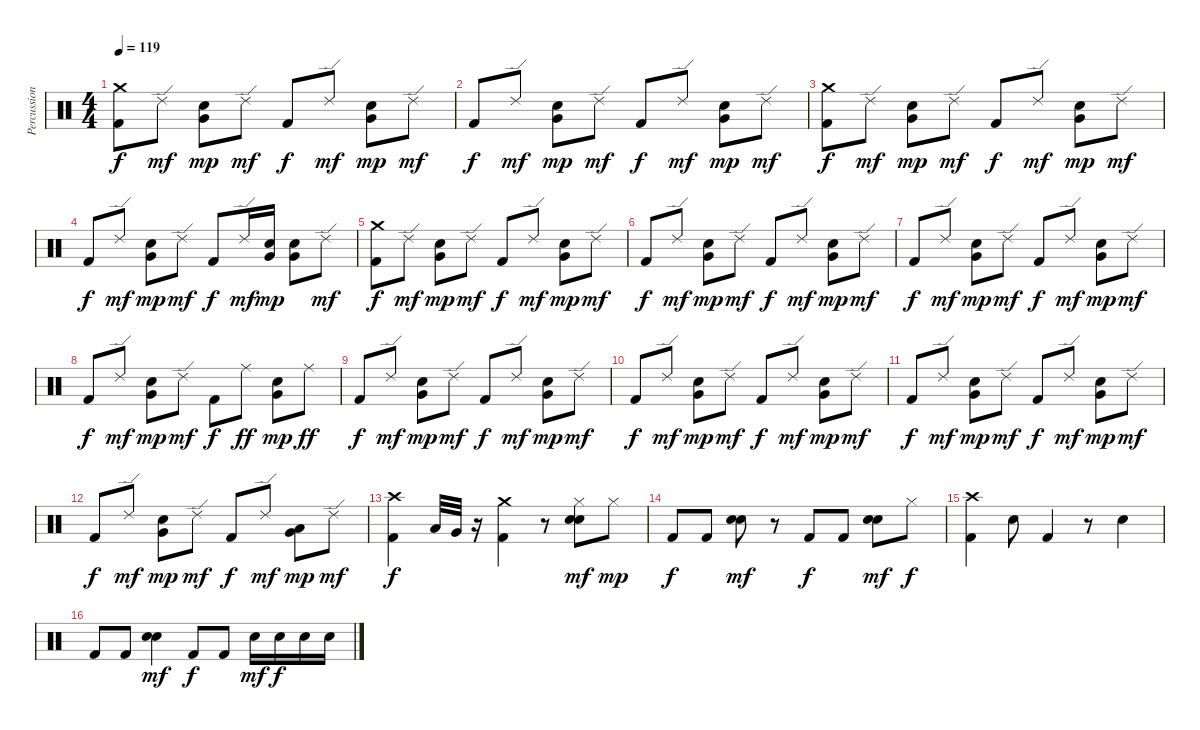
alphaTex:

\track ("Percussion" "Percussion") {instrument percussion}
\staff {score}
\articulation defaults
\ts (4 4)
\tempo 119
\clef neutral
\ks c
("Crash medium (hit)" "Kick (hit) 2").8{dy f} "Ride (edge) 2".8{dy mf} ("Very Low Tom (hit)" "Snare (hit) 2").8{dy mp} "Ride (edge) 2".8{dy mf} "Kick (hit) 2".8{dy f} "Ride (edge) 2".8{dy mf} ("Very Low Tom (hit)" "Snare (hit) 2").8{dy mp} "Ride (edge) 2".8{dy mf} |
"Kick (hit) 2".8{dy f} "Ride (edge) 2".8{dy mf} ("Very Low Tom (hit)" "Snare (hit) 2").8{dy mp} "Ride (edge) 2".8{dy mf} "Kick (hit) 2".8{dy f} "Ride (edge) 2".8{dy mf} ("Very Low Tom (hit)" "Snare (hit) 2").8{dy mp} "Ride (edge) 2".8{dy mf} |
("Crash medium (hit)" "Kick (hit) 2").8{dy f} "Ride (edge) 2".8{dy mf} ("Very Low Tom (hit)" "Snare (hit) 2").8{dy mp} "Ride (edge) 2".8{dy mf} "Kick (hit) 2".8{dy f} "Ride (edge) 2".8{dy mf} ("Very Low Tom (hit)" "Snare (hit) 2").8{dy mp} "Ride (edge) 2".8{dy mf} |
"Kick (hit) 2".8{dy f} "Ride (edge) 2".8{dy mf} ("Very Low Tom (hit)" "Snare (hit) 2").8{dy mp} "Ride (edge) 2".8{dy mf} "Kick (hit) 2".8{dy f} "Ride (edge) 2".16{dy mf} ("Very Low Tom (hit)" "Snare (hit) 2").16{dy mp} ("Very Low Tom (hit)" "Snare (hit) 2").8 "Ride (edge) 2".8{dy mf} |
("Crash medium (hit)" "Kick (hit) 2").8{dy f} "Ride (edge) 2".8{dy mf} ("Very Low Tom (hit)" "Snare (hit) 2").8{dy mp} "Ride (edge) 2".8{dy mf} "Kick (hit) 2".8{dy f} "Ride (edge) 2".8{dy mf} ("Very Low Tom (hit)" "Snare (hit) 2").8{dy mp} "Ride (edge) 2".8{dy mf} |
"Kick (hit) 2".8{dy f} "Ride (edge) 2".8{dy mf} ("Very Low Tom (hit)" "Snare (hit) 2").8{dy mp} "Ride (edge) 2".8{dy mf} "Kick (hit) 2".8{dy f} "Ride (edge) 2".8{dy mf} ("Very Low Tom (hit)" "Snare (hit) 2").8{dy mp} "Ride (edge) 2".8{dy mf} |
"Kick (hit) 2".8{dy f} "Ride (edge) 2".8{dy mf} ("Very Low Tom (hit)" "Snare (hit) 2").8{dy mp} "Ride (edge) 2".8{dy mf} "Kick (hit) 2".8{dy f} "Ride (edge) 2".8{dy mf} ("Very Low Tom (hit)" "Snare (hit) 2").8{dy mp} "Ride (edge) 2".8{dy mf} |
"Kick (hit) 2".8{dy f} "Ride (edge) 2".8{dy mf} ("Very Low Tom (hit)" "Snare (hit) 2").8{dy mp} "Ride (edge) 2".8{dy mf} "Kick (hit) 2".8{dy f} "Ride (middle)".8{dy ff} ("Very Low Tom (hit)" "Snare (hit) 2").8{dy mp} "Ride (middle)".8{dy ff} |
"Kick (hit) 2".8{dy f} "Ride (edge) 2".8{dy mf} ("Very Low Tom (hit)" "Snare (hit) 2").8{dy mp} "Ride (edge) 2".8{dy mf} "Kick (hit) 2".8{dy f} "Ride (edge) 2".8{dy mf} ("Very Low Tom (hit)" "Snare (hit) 2").8{dy mp} "Ride (edge) 2".8{dy mf} |
"Kick (hit) 2".8{dy f} "Ride (edge) 2".8{dy mf} ("Very Low Tom (hit)" "Snare (hit) 2").8{dy mp} "Ride (edge) 2".8{dy mf} "Kick (hit) 2".8{dy f} "Ride (edge) 2".8{dy mf} ("Very Low Tom (hit)" "Snare (hit) 2").8{dy mp} "Ride (edge) 2".8{dy mf} |
"Kick (hit) 2".8{dy f} "Ride (edge) 2".8{dy mf} ("Very Low Tom (hit)" "Snare (hit) 2").8{dy mp} "Ride (edge) 2".8{dy mf} "Kick (hit) 2".8{dy f} "Ride (edge) 2".8{dy mf} ("Very Low Tom (hit)" "Snare (hit) 2").8{dy mp} "Ride (edge) 2".8{dy mf} |
"Kick (hit) 2".8{dy f} "Ride (edge) 2".8{dy mf} ("Very Low Tom (hit)" "Snare (hit) 2").8{dy mp} "Ride (edge) 2".8{dy mf} "Kick (hit) 2".8{dy f} "Ride (edge) 2".8{dy mf} ("Very Low Tom (hit)" "Low Floor Tom (hit)").8{dy mp} "Ride (edge) 2".8{dy mf} |
("Crash high (hit)" "Kick (hit) 2").4{dy f} "Low Tom (hit)".32 "Very Low Tom (hit)".32 r.16 ("Crash medium (hit)" "Kick (hit) 2").4 r.8 ("Hi-Hat (closed)" "Electric Snare (hit)" "Snare (hit) 2").8{dy mf} "Hi-Hat (closed)".8{dy mp} |
"Kick (hit) 2".8{dy f} "Kick (hit) 2".8 ("Electric Snare (hit)" "Snare (hit) 2").8{dy mf} r.8 "Kick (hit) 2".8{dy f} "Kick (hit) 2".8 ("Electric Snare (hit)" "Snare (hit) 2").8{dy mf} "Hi-Hat (closed)".8{dy f} |
("Crash high (hit)" "Kick (hit) 2").4 "Snare (hit) 2".8 "Kick (hit) 2".4 r.8 "Snare (hit) 2".4 |
"Kick (hit) 2".8 "Kick (hit) 2".8 ("Electric Snare (hit)" "Snare (hit) 2").4{dy mf} "Kick (hit) 2".8{dy f} "Kick (hit) 2".8 "Snare (hit) 2".16{dy mf} "Snare (hit) 2".16{dy f} "Snare (hit) 2".16 "Snare (hit) 2".16
